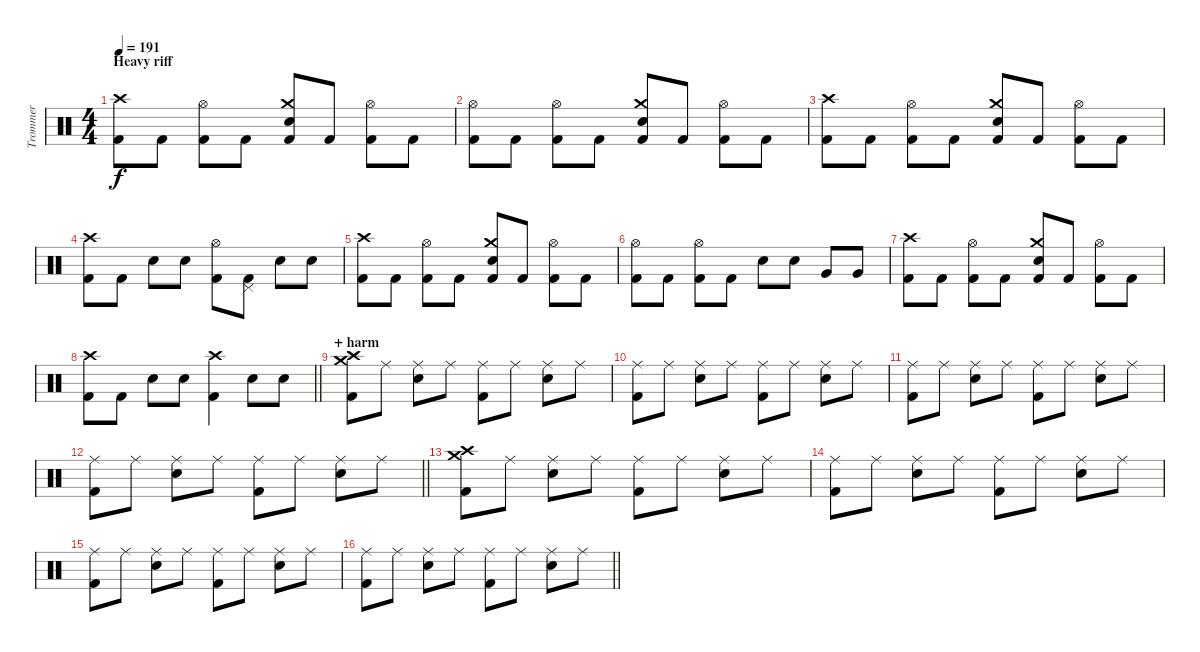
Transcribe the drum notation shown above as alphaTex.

\track ("Trommer" "Trommer") {instrument percussion}
\staff {score}
\articulation defaults
\ts (4 4)
\section ("" "Heavy riff")
\tempo 191
\clef neutral
\ks c
("Crash high (hit)" "Kick (hit) 2").8{dy f} "Kick (hit) 2".8 ("Hi-Hat (open)" "Kick (hit) 2").8 "Kick (hit) 2".8 ("Crash medium (hit)" "Snare (hit) 2" "Kick (hit) 2").8 "Kick (hit) 2".8 ("Hi-Hat (open)" "Kick (hit) 2").8 "Kick (hit) 2".8 |
("Hi-Hat (open)" "Kick (hit) 2").8 "Kick (hit) 2".8 ("Hi-Hat (open)" "Kick (hit) 2").8 "Kick (hit) 2".8 ("Crash medium (hit)" "Snare (hit) 2" "Kick (hit) 2").8 "Kick (hit) 2".8 ("Hi-Hat (open)" "Kick (hit) 2").8 "Kick (hit) 2".8 |
("Crash high (hit)" "Kick (hit) 2").8 "Kick (hit) 2".8 ("Hi-Hat (open)" "Kick (hit) 2").8 "Kick (hit) 2".8 ("Crash medium (hit)" "Snare (hit) 2" "Kick (hit) 2").8 "Kick (hit) 2".8 ("Hi-Hat (open)" "Kick (hit) 2").8 "Kick (hit) 2".8 |
("Crash high (hit)" "Kick (hit) 2").8 "Kick (hit) 2".8 "Snare (hit) 2".8 "Snare (hit) 2".8 ("Hi-Hat (open)" "Kick (hit) 2").8 ("Pedal Hi-Hat (hit)" "Kick (hit) 2").8 "Snare (hit) 2".8 "Snare (hit) 2".8 |
("Crash high (hit)" "Kick (hit) 2").8 "Kick (hit) 2".8 ("Hi-Hat (open)" "Kick (hit) 2").8 "Kick (hit) 2".8 ("Crash medium (hit)" "Snare (hit) 2" "Kick (hit) 2").8 "Kick (hit) 2".8 ("Hi-Hat (open)" "Kick (hit) 2").8 "Kick (hit) 2".8 |
("Hi-Hat (open)" "Kick (hit) 2").8 "Kick (hit) 2".8 ("Hi-Hat (open)" "Kick (hit) 2").8 "Kick (hit) 2".8 "Snare (hit) 2".8 "Snare (hit) 2".8 "Very Low Tom (hit)".8 "Very Low Tom (hit)".8 |
("Crash high (hit)" "Kick (hit) 2").8 "Kick (hit) 2".8 ("Hi-Hat (open)" "Kick (hit) 2").8 "Kick (hit) 2".8 ("Crash medium (hit)" "Snare (hit) 2" "Kick (hit) 2").8 "Kick (hit) 2".8 ("Hi-Hat (open)" "Kick (hit) 2").8 "Kick (hit) 2".8 |
\barLineRight lightlight
("Crash high (hit)" "Kick (hit) 2").8 "Kick (hit) 2".8 "Snare (hit) 2".8 "Snare (hit) 2".8 ("Crash high (hit)" "Kick (hit) 2").4 "Snare (hit) 2".8 "Snare (hit) 2".8 |
\section ("" "+ harm")
("Crash medium (hit)" "Crash high (hit)" "Kick (hit) 2").8 "Ride (middle)".8 ("Ride (middle)" "Snare (hit) 2").8 "Ride (middle)".8 ("Ride (middle)" "Kick (hit) 2").8 "Ride (middle)".8 ("Ride (middle)" "Snare (hit) 2").8 "Ride (middle)".8 |
("Ride (middle)" "Kick (hit) 2").8 "Ride (middle)".8 ("Ride (middle)" "Snare (hit) 2").8 "Ride (middle)".8 ("Ride (middle)" "Kick (hit) 2").8 "Ride (middle)".8 ("Ride (middle)" "Snare (hit) 2").8 "Ride (middle)".8 |
("Ride (middle)" "Kick (hit) 2").8 "Ride (middle)".8 ("Ride (middle)" "Snare (hit) 2").8 "Ride (middle)".8 ("Ride (middle)" "Kick (hit) 2").8 "Ride (middle)".8 ("Ride (middle)" "Snare (hit) 2").8 "Ride (middle)".8 |
\barLineRight lightlight
("Ride (middle)" "Kick (hit) 2").8 "Ride (middle)".8 ("Ride (middle)" "Snare (hit) 2").8 "Ride (middle)".8 ("Ride (middle)" "Kick (hit) 2").8 "Ride (middle)".8 ("Ride (middle)" "Snare (hit) 2").8 "Ride (middle)".8 |
("Crash medium (hit)" "Crash high (hit)" "Kick (hit) 2").8 "Ride (middle)".8 ("Ride (middle)" "Snare (hit) 2").8 "Ride (middle)".8 ("Ride (middle)" "Kick (hit) 2").8 "Ride (middle)".8 ("Ride (middle)" "Snare (hit) 2").8 "Ride (middle)".8 |
("Ride (middle)" "Kick (hit) 2").8 "Ride (middle)".8 ("Ride (middle)" "Snare (hit) 2").8 "Ride (middle)".8 ("Ride (middle)" "Kick (hit) 2").8 "Ride (middle)".8 ("Ride (middle)" "Snare (hit) 2").8 "Ride (middle)".8 |
("Ride (middle)" "Kick (hit) 2").8 "Ride (middle)".8 ("Ride (middle)" "Snare (hit) 2").8 "Ride (middle)".8 ("Ride (middle)" "Kick (hit) 2").8 "Ride (middle)".8 ("Ride (middle)" "Snare (hit) 2").8 "Ride (middle)".8 |
\barLineRight lightlight
("Ride (middle)" "Kick (hit) 2").8 "Ride (middle)".8 ("Ride (middle)" "Snare (hit) 2").8 "Ride (middle)".8 ("Ride (middle)" "Kick (hit) 2").8 "Ride (middle)".8 ("Ride (middle)" "Snare (hit) 2").8 "Ride (middle)".8
